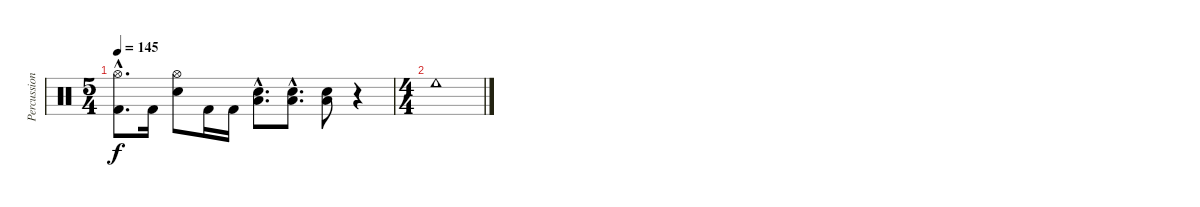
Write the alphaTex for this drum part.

\track ("Percussions" "Percussion") {instrument percussion}
\staff {score}
\articulation defaults
\ts (5 4)
\tempo 145
\clef neutral
\ks c
("Hi-Hat (open)"{hac} "Kick (hit) 2"{hac}).8{d dy f} "Kick (hit) 2".16 ("Hi-Hat (open)" "Electric Snare (hit)").8 "Kick (hit) 2".16 "Kick (hit) 2".16 ("Low Floor Tom (hit)"{hac} "Electric Snare (hit)"{hac}).8{d} ("Low Floor Tom (hit)"{hac} "Electric Snare (hit)"{hac}).8{d} ("Low Floor Tom (hit)" "Electric Snare (hit)").8 r.4 |
\ts (4 4)
"Cowbell low (hit)".1
